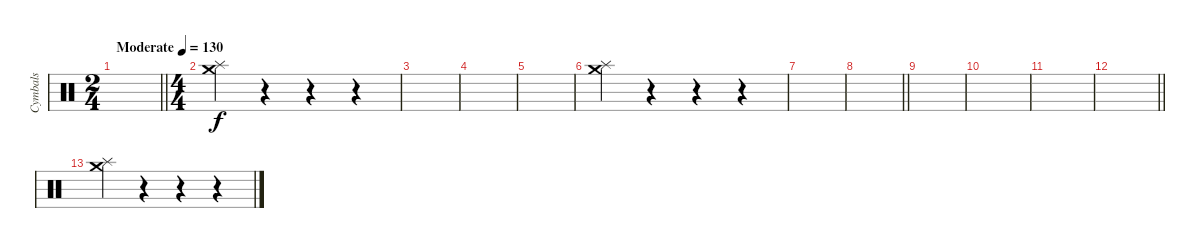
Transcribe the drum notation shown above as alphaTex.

\track ("Cymbals" "Cymbals") {instrument percussion}
\staff {score}
\articulation defaults
\ts (2 4)
\tempo (130 "Moderate")
\clef neutral
\barLineRight lightlight
\ks c
|
\ts (4 4)
\section ("" "")
("Crash medium (hit)" "Splash (hit)").4 r.4 r.4 r.4 |
|
|
|
("Crash medium (hit)" "Splash (hit)").4 r.4 r.4 r.4 |
|
\barLineRight lightlight
|
\section ("" "")
|
|
|
\barLineRight lightlight
|
\section ("" "")
("Crash medium (hit)" "Splash (hit)").4 r.4 r.4 r.4
